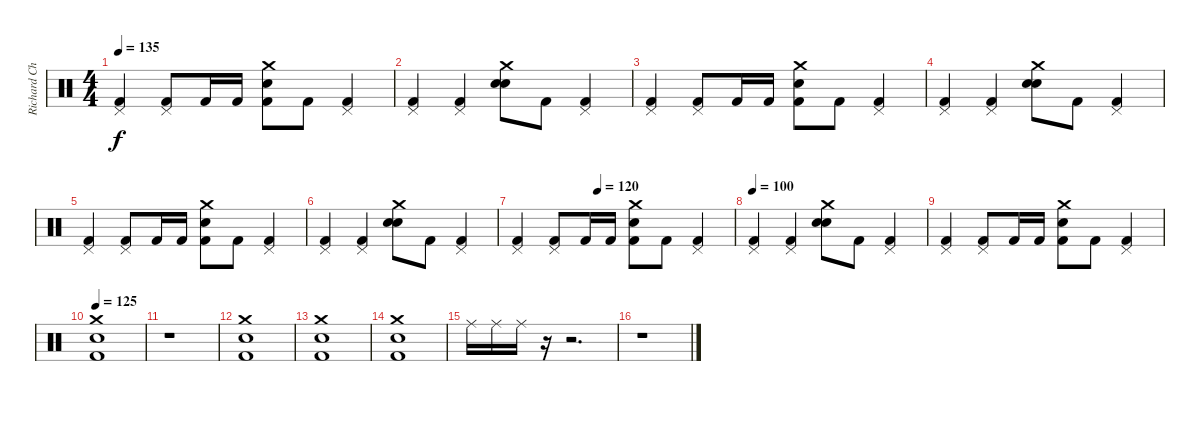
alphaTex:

\track ("Richard Christy" "Richard Ch") {instrument percussion}
\staff {score}
\articulation defaults
\ts (4 4)
\tempo 135
\clef neutral
\ks c
("Pedal Hi-Hat (hit)" "Kick (hit) 2").4{dy f} ("Pedal Hi-Hat (hit)" "Kick (hit) 2").8 "Kick (hit) 2".16 "Kick (hit) 2".16 ("Snare (hit) 2" "Crash medium (hit)" "Kick (hit) 2").8 "Kick (hit) 2".8 ("Pedal Hi-Hat (hit)" "Kick (hit) 2").4 |
("Pedal Hi-Hat (hit)" "Kick (hit) 2").4 ("Pedal Hi-Hat (hit)" "Kick (hit) 2").4 ("Snare (hit) 2" "Crash medium (hit)" "Snare (hit) 2").8 "Kick (hit) 2".8 ("Pedal Hi-Hat (hit)" "Kick (hit) 2").4 |
("Pedal Hi-Hat (hit)" "Kick (hit) 2").4 ("Pedal Hi-Hat (hit)" "Kick (hit) 2").8 "Kick (hit) 2".16 "Kick (hit) 2".16 ("Snare (hit) 2" "Crash medium (hit)" "Kick (hit) 2").8 "Kick (hit) 2".8 ("Pedal Hi-Hat (hit)" "Kick (hit) 2").4 |
("Pedal Hi-Hat (hit)" "Kick (hit) 2").4 ("Pedal Hi-Hat (hit)" "Kick (hit) 2").4 ("Snare (hit) 2" "Crash medium (hit)" "Snare (hit) 2").8 "Kick (hit) 2".8 ("Pedal Hi-Hat (hit)" "Kick (hit) 2").4 |
("Pedal Hi-Hat (hit)" "Kick (hit) 2").4 ("Pedal Hi-Hat (hit)" "Kick (hit) 2").8 "Kick (hit) 2".16 "Kick (hit) 2".16 ("Snare (hit) 2" "Crash medium (hit)" "Kick (hit) 2").8 "Kick (hit) 2".8 ("Pedal Hi-Hat (hit)" "Kick (hit) 2").4 |
("Pedal Hi-Hat (hit)" "Kick (hit) 2").4 ("Pedal Hi-Hat (hit)" "Kick (hit) 2").4 ("Snare (hit) 2" "Crash medium (hit)" "Snare (hit) 2").8 "Kick (hit) 2".8 ("Pedal Hi-Hat (hit)" "Kick (hit) 2").4 |
\tempo (120 0.375)
("Pedal Hi-Hat (hit)" "Kick (hit) 2").4 ("Pedal Hi-Hat (hit)" "Kick (hit) 2").8 "Kick (hit) 2".16 "Kick (hit) 2".16 ("Snare (hit) 2" "Crash medium (hit)" "Kick (hit) 2").8 "Kick (hit) 2".8 ("Pedal Hi-Hat (hit)" "Kick (hit) 2").4 |
\tempo 100
("Pedal Hi-Hat (hit)" "Kick (hit) 2").4 ("Pedal Hi-Hat (hit)" "Kick (hit) 2").4 ("Snare (hit) 2" "Crash medium (hit)" "Snare (hit) 2").8 "Kick (hit) 2".8 ("Pedal Hi-Hat (hit)" "Kick (hit) 2").4 |
("Pedal Hi-Hat (hit)" "Kick (hit) 2").4 ("Pedal Hi-Hat (hit)" "Kick (hit) 2").8 "Kick (hit) 2".16 "Kick (hit) 2".16 ("Snare (hit) 2" "Crash medium (hit)" "Kick (hit) 2").8 "Kick (hit) 2".8 ("Pedal Hi-Hat (hit)" "Kick (hit) 2").4 |
\tempo 125
("Snare (hit) 2" "Crash medium (hit)" "Kick (hit) 2").1 |
r.1 |
("Snare (hit) 2" "Crash medium (hit)" "Kick (hit) 2").1 |
("Snare (hit) 2" "Crash medium (hit)" "Kick (hit) 2").1 |
("Snare (hit) 2" "Crash medium (hit)" "Kick (hit) 2").1 |
"Ride (middle)".16{volume 9} "Ride (middle)".16 "Ride (middle)".16 r.16 r.2{d} |
r.1
